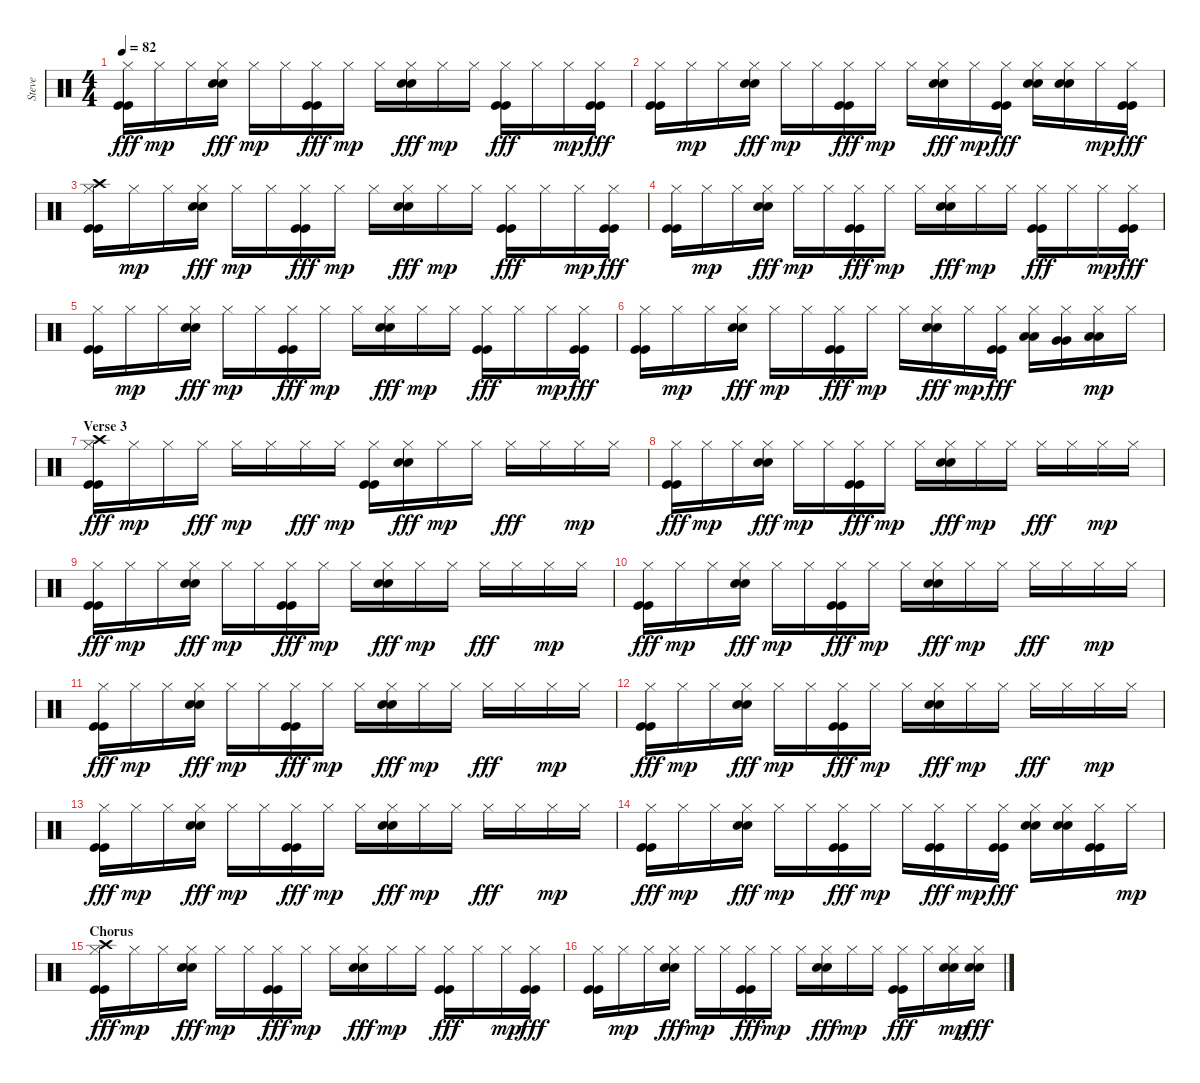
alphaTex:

\track ("Steve" "Steve") {instrument percussion}
\staff {score}
\articulation defaults
\ts (4 4)
\tempo 82
\clef neutral
\ks c
("Hi-Hat (closed)" "Kick (hit)" "Kick (hit)").16{dy fff} "Hi-Hat (closed)".16{dy mp} "Hi-Hat (closed)".16 ("Hi-Hat (closed)" "Snare (hit) 2" "Snare (hit) 2").16{dy fff} "Hi-Hat (closed)".16{dy mp} "Hi-Hat (closed)".16 ("Hi-Hat (closed)" "Kick (hit)" "Kick (hit)").16{dy fff} "Hi-Hat (closed)".16{dy mp} "Hi-Hat (closed)".16 ("Hi-Hat (closed)" "Snare (hit) 2" "Snare (hit) 2").16{dy fff} "Hi-Hat (closed)".16{dy mp} "Hi-Hat (closed)".16 ("Hi-Hat (closed)" "Kick (hit)" "Kick (hit)").16{dy fff} "Hi-Hat (closed)".16 "Hi-Hat (closed)".16{dy mp} ("Hi-Hat (closed)" "Kick (hit)" "Kick (hit)").16{dy fff} |
("Hi-Hat (closed)" "Kick (hit)" "Kick (hit)").16 "Hi-Hat (closed)".16{dy mp} "Hi-Hat (closed)".16 ("Hi-Hat (closed)" "Snare (hit) 2" "Snare (hit) 2").16{dy fff} "Hi-Hat (closed)".16{dy mp} "Hi-Hat (closed)".16 ("Hi-Hat (closed)" "Kick (hit)" "Kick (hit)").16{dy fff} "Hi-Hat (closed)".16{dy mp} "Hi-Hat (closed)".16 ("Hi-Hat (closed)" "Snare (hit) 2" "Snare (hit) 2").16{dy fff} "Hi-Hat (closed)".16{dy mp} ("Hi-Hat (closed)" "Kick (hit)" "Kick (hit)").16{dy fff} ("Hi-Hat (closed)" "Snare (hit) 2" "Snare (hit) 2").16 ("Hi-Hat (closed)" "Snare (hit) 2" "Snare (hit) 2").16 "Hi-Hat (closed)".16{dy mp} ("Hi-Hat (closed)" "Kick (hit)" "Kick (hit)").16{dy fff} |
("Crash high (hit)" "Hi-Hat (closed)" "Kick (hit)" "Kick (hit)").16 "Hi-Hat (closed)".16{dy mp} "Hi-Hat (closed)".16 ("Hi-Hat (closed)" "Snare (hit) 2" "Snare (hit) 2").16{dy fff} "Hi-Hat (closed)".16{dy mp} "Hi-Hat (closed)".16 ("Hi-Hat (closed)" "Kick (hit)" "Kick (hit)").16{dy fff} "Hi-Hat (closed)".16{dy mp} "Hi-Hat (closed)".16 ("Hi-Hat (closed)" "Snare (hit) 2" "Snare (hit) 2").16{dy fff} "Hi-Hat (closed)".16{dy mp} "Hi-Hat (closed)".16 ("Hi-Hat (closed)" "Kick (hit)" "Kick (hit)").16{dy fff} "Hi-Hat (closed)".16 "Hi-Hat (closed)".16{dy mp} ("Hi-Hat (closed)" "Kick (hit)" "Kick (hit)").16{dy fff} |
("Hi-Hat (closed)" "Kick (hit)" "Kick (hit)").16 "Hi-Hat (closed)".16{dy mp} "Hi-Hat (closed)".16 ("Hi-Hat (closed)" "Snare (hit) 2" "Snare (hit) 2").16{dy fff} "Hi-Hat (closed)".16{dy mp} "Hi-Hat (closed)".16 ("Hi-Hat (closed)" "Kick (hit)" "Kick (hit)").16{dy fff} "Hi-Hat (closed)".16{dy mp} "Hi-Hat (closed)".16 ("Hi-Hat (closed)" "Snare (hit) 2" "Snare (hit) 2").16{dy fff} "Hi-Hat (closed)".16{dy mp} "Hi-Hat (closed)".16 ("Hi-Hat (closed)" "Kick (hit)" "Kick (hit)").16{dy fff} "Hi-Hat (closed)".16 "Hi-Hat (closed)".16{dy mp} ("Hi-Hat (closed)" "Kick (hit)" "Kick (hit)").16{dy fff} |
("Hi-Hat (closed)" "Kick (hit)" "Kick (hit)").16 "Hi-Hat (closed)".16{dy mp} "Hi-Hat (closed)".16 ("Hi-Hat (closed)" "Snare (hit) 2" "Snare (hit) 2").16{dy fff} "Hi-Hat (closed)".16{dy mp} "Hi-Hat (closed)".16 ("Hi-Hat (closed)" "Kick (hit)" "Kick (hit)").16{dy fff} "Hi-Hat (closed)".16{dy mp} "Hi-Hat (closed)".16 ("Hi-Hat (closed)" "Snare (hit) 2" "Snare (hit) 2").16{dy fff} "Hi-Hat (closed)".16{dy mp} "Hi-Hat (closed)".16 ("Hi-Hat (closed)" "Kick (hit)" "Kick (hit)").16{dy fff} "Hi-Hat (closed)".16 "Hi-Hat (closed)".16{dy mp} ("Hi-Hat (closed)" "Kick (hit)" "Kick (hit)").16{dy fff} |
("Hi-Hat (closed)" "Kick (hit)" "Kick (hit)").16 "Hi-Hat (closed)".16{dy mp} "Hi-Hat (closed)".16 ("Hi-Hat (closed)" "Snare (hit) 2" "Snare (hit) 2").16{dy fff} "Hi-Hat (closed)".16{dy mp} "Hi-Hat (closed)".16 ("Hi-Hat (closed)" "Kick (hit)" "Kick (hit)").16{dy fff} "Hi-Hat (closed)".16{dy mp} "Hi-Hat (closed)".16 ("Hi-Hat (closed)" "Snare (hit) 2" "Snare (hit) 2").16{dy fff} "Hi-Hat (closed)".16{dy mp} ("Hi-Hat (closed)" "Kick (hit)" "Kick (hit)").16{dy fff} ("Hi-Hat (closed)" "Low Tom (hit)" "Low Tom (hit)").16 ("Hi-Hat (closed)" "Very Low Tom (hit)" "Very Low Tom (hit)").16 ("Hi-Hat (closed)" "Low Floor Tom (hit)" "Low Floor Tom (hit)").16{dy mp} "Hi-Hat (closed)".16 |
\section ("" "Verse 3")
("Crash high (hit)" "Hi-Hat (closed)" "Kick (hit)" "Kick (hit)").16{dy fff} "Hi-Hat (closed)".16{dy mp} "Hi-Hat (closed)".16 "Hi-Hat (closed)".16{dy fff} "Hi-Hat (closed)".16{dy mp} "Hi-Hat (closed)".16 "Hi-Hat (closed)".16{dy fff} "Hi-Hat (closed)".16{dy mp} ("Hi-Hat (closed)" "Kick (hit)" "Kick (hit)").16 ("Hi-Hat (closed)" "Snare (hit) 2" "Snare (hit) 2").16{dy fff} "Hi-Hat (closed)".16{dy mp} "Hi-Hat (closed)".16 "Hi-Hat (closed)".16{dy fff} "Hi-Hat (closed)".16 "Hi-Hat (closed)".16{dy mp} "Hi-Hat (closed)".16 |
("Hi-Hat (closed)" "Kick (hit)" "Kick (hit)").16{dy fff} "Hi-Hat (closed)".16{dy mp} "Hi-Hat (closed)".16 ("Hi-Hat (closed)" "Snare (hit) 2" "Snare (hit) 2").16{dy fff} "Hi-Hat (closed)".16{dy mp} "Hi-Hat (closed)".16 ("Hi-Hat (closed)" "Kick (hit)" "Kick (hit)").16{dy fff} "Hi-Hat (closed)".16{dy mp} "Hi-Hat (closed)".16 ("Hi-Hat (closed)" "Snare (hit) 2" "Snare (hit) 2").16{dy fff} "Hi-Hat (closed)".16{dy mp} "Hi-Hat (closed)".16 "Hi-Hat (closed)".16{dy fff} "Hi-Hat (closed)".16 "Hi-Hat (closed)".16{dy mp} "Hi-Hat (closed)".16 |
("Hi-Hat (closed)" "Kick (hit)" "Kick (hit)").16{dy fff} "Hi-Hat (closed)".16{dy mp} "Hi-Hat (closed)".16 ("Hi-Hat (closed)" "Snare (hit) 2" "Snare (hit) 2").16{dy fff} "Hi-Hat (closed)".16{dy mp} "Hi-Hat (closed)".16 ("Hi-Hat (closed)" "Kick (hit)" "Kick (hit)").16{dy fff} "Hi-Hat (closed)".16{dy mp} "Hi-Hat (closed)".16 ("Hi-Hat (closed)" "Snare (hit) 2" "Snare (hit) 2").16{dy fff} "Hi-Hat (closed)".16{dy mp} "Hi-Hat (closed)".16 "Hi-Hat (closed)".16{dy fff} "Hi-Hat (closed)".16 "Hi-Hat (closed)".16{dy mp} "Hi-Hat (closed)".16 |
("Hi-Hat (closed)" "Kick (hit)" "Kick (hit)").16{dy fff} "Hi-Hat (closed)".16{dy mp} "Hi-Hat (closed)".16 ("Hi-Hat (closed)" "Snare (hit) 2" "Snare (hit) 2").16{dy fff} "Hi-Hat (closed)".16{dy mp} "Hi-Hat (closed)".16 ("Hi-Hat (closed)" "Kick (hit)" "Kick (hit)").16{dy fff} "Hi-Hat (closed)".16{dy mp} "Hi-Hat (closed)".16 ("Hi-Hat (closed)" "Snare (hit) 2" "Snare (hit) 2").16{dy fff} "Hi-Hat (closed)".16{dy mp} "Hi-Hat (closed)".16 "Hi-Hat (closed)".16{dy fff} "Hi-Hat (closed)".16 "Hi-Hat (closed)".16{dy mp} "Hi-Hat (closed)".16 |
("Hi-Hat (closed)" "Kick (hit)" "Kick (hit)").16{dy fff} "Hi-Hat (closed)".16{dy mp} "Hi-Hat (closed)".16 ("Hi-Hat (closed)" "Snare (hit) 2" "Snare (hit) 2").16{dy fff} "Hi-Hat (closed)".16{dy mp} "Hi-Hat (closed)".16 ("Hi-Hat (closed)" "Kick (hit)" "Kick (hit)").16{dy fff} "Hi-Hat (closed)".16{dy mp} "Hi-Hat (closed)".16 ("Hi-Hat (closed)" "Snare (hit) 2" "Snare (hit) 2").16{dy fff} "Hi-Hat (closed)".16{dy mp} "Hi-Hat (closed)".16 "Hi-Hat (closed)".16{dy fff} "Hi-Hat (closed)".16 "Hi-Hat (closed)".16{dy mp} "Hi-Hat (closed)".16 |
("Hi-Hat (closed)" "Kick (hit)" "Kick (hit)").16{dy fff} "Hi-Hat (closed)".16{dy mp} "Hi-Hat (closed)".16 ("Hi-Hat (closed)" "Snare (hit) 2" "Snare (hit) 2").16{dy fff} "Hi-Hat (closed)".16{dy mp} "Hi-Hat (closed)".16 ("Hi-Hat (closed)" "Kick (hit)" "Kick (hit)").16{dy fff} "Hi-Hat (closed)".16{dy mp} "Hi-Hat (closed)".16 ("Hi-Hat (closed)" "Snare (hit) 2" "Snare (hit) 2").16{dy fff} "Hi-Hat (closed)".16{dy mp} "Hi-Hat (closed)".16 "Hi-Hat (closed)".16{dy fff} "Hi-Hat (closed)".16 "Hi-Hat (closed)".16{dy mp} "Hi-Hat (closed)".16 |
("Hi-Hat (closed)" "Kick (hit)" "Kick (hit)").16{dy fff} "Hi-Hat (closed)".16{dy mp} "Hi-Hat (closed)".16 ("Hi-Hat (closed)" "Snare (hit) 2" "Snare (hit) 2").16{dy fff} "Hi-Hat (closed)".16{dy mp} "Hi-Hat (closed)".16 ("Hi-Hat (closed)" "Kick (hit)" "Kick (hit)").16{dy fff} "Hi-Hat (closed)".16{dy mp} "Hi-Hat (closed)".16 ("Hi-Hat (closed)" "Snare (hit) 2" "Snare (hit) 2").16{dy fff} "Hi-Hat (closed)".16{dy mp} "Hi-Hat (closed)".16 "Hi-Hat (closed)".16{dy fff} "Hi-Hat (closed)".16 "Hi-Hat (closed)".16{dy mp} "Hi-Hat (closed)".16 |
("Hi-Hat (closed)" "Kick (hit)" "Kick (hit)").16{dy fff} "Hi-Hat (closed)".16{dy mp} "Hi-Hat (closed)".16 ("Hi-Hat (closed)" "Snare (hit) 2" "Snare (hit) 2").16{dy fff} "Hi-Hat (closed)".16{dy mp} "Hi-Hat (closed)".16 ("Hi-Hat (closed)" "Kick (hit)" "Kick (hit)").16{dy fff} "Hi-Hat (closed)".16{dy mp} "Hi-Hat (closed)".16 ("Hi-Hat (closed)" "Kick (hit)" "Kick (hit)").16{dy fff} "Hi-Hat (closed)".16{dy mp} ("Hi-Hat (closed)" "Kick (hit)" "Kick (hit)").16{dy fff} ("Hi-Hat (closed)" "Snare (hit) 2" "Snare (hit) 2").16 ("Hi-Hat (closed)" "Snare (hit) 2" "Snare (hit) 2").16 ("Hi-Hat (closed)" "Kick (hit)" "Kick (hit)").16 "Hi-Hat (closed)".16{dy mp} |
\section ("" "Chorus")
("Crash high (hit)" "Hi-Hat (closed)" "Kick (hit)" "Kick (hit)").16{dy fff} "Hi-Hat (closed)".16{dy mp} "Hi-Hat (closed)".16 ("Hi-Hat (closed)" "Snare (hit) 2" "Snare (hit) 2").16{dy fff} "Hi-Hat (closed)".16{dy mp} "Hi-Hat (closed)".16 ("Hi-Hat (closed)" "Kick (hit)" "Kick (hit)").16{dy fff} "Hi-Hat (closed)".16{dy mp} "Hi-Hat (closed)".16 ("Hi-Hat (closed)" "Snare (hit) 2" "Snare (hit) 2").16{dy fff} "Hi-Hat (closed)".16{dy mp} "Hi-Hat (closed)".16 ("Hi-Hat (closed)" "Kick (hit)" "Kick (hit)").16{dy fff} "Hi-Hat (closed)".16 "Hi-Hat (closed)".16{dy mp} ("Hi-Hat (closed)" "Kick (hit)" "Kick (hit)").16{dy fff} |
("Hi-Hat (closed)" "Kick (hit)" "Kick (hit)").16 "Hi-Hat (closed)".16{dy mp} "Hi-Hat (closed)".16 ("Hi-Hat (closed)" "Snare (hit) 2" "Snare (hit) 2").16{dy fff} "Hi-Hat (closed)".16{dy mp} "Hi-Hat (closed)".16 ("Hi-Hat (closed)" "Kick (hit)" "Kick (hit)").16{dy fff} "Hi-Hat (closed)".16{dy mp} "Hi-Hat (closed)".16 ("Hi-Hat (closed)" "Snare (hit) 2" "Snare (hit) 2").16{dy fff} "Hi-Hat (closed)".16{dy mp} "Hi-Hat (closed)".16 ("Hi-Hat (closed)" "Kick (hit)" "Kick (hit)").16{dy fff} "Hi-Hat (closed)".16 ("Hi-Hat (closed)" "Snare (hit) 2" "Snare (hit) 2").16{dy mp} ("Hi-Hat (closed)" "Snare (hit) 2" "Snare (hit) 2").16{dy fff}
